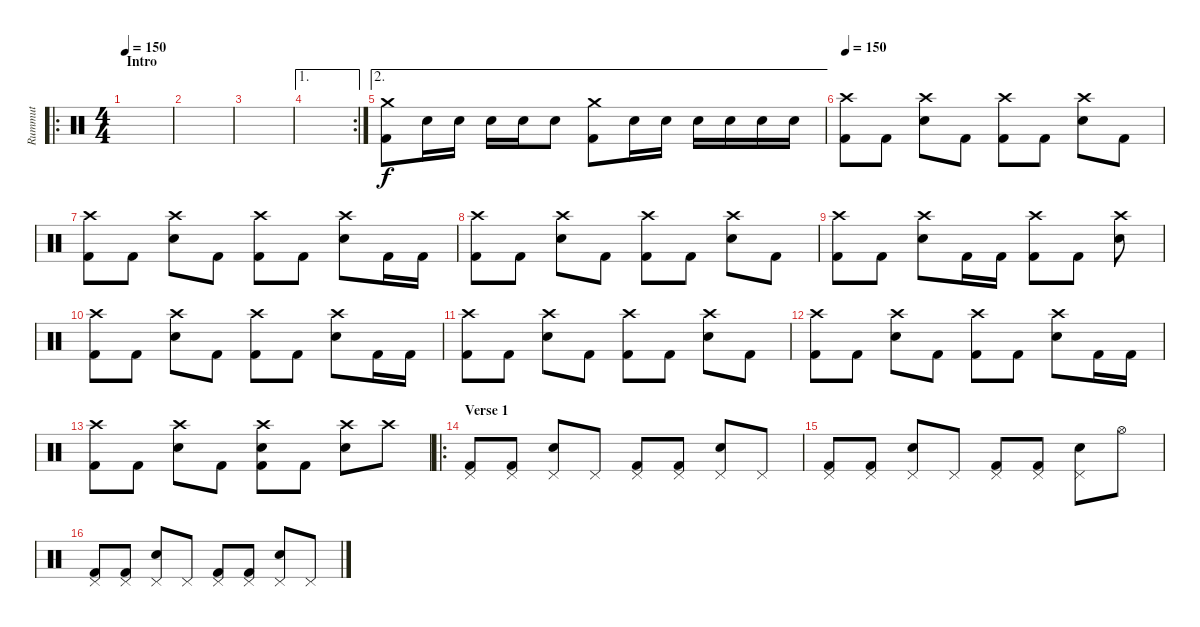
\track ("Rummut" "Rummut") {instrument percussion}
\staff {score}
\articulation defaults
\ro
\ts (4 4)
\section ("" "Intro")
\tempo 150
\clef neutral
\ks c
|
|
|
\ae 1
\rc 2
|
\ae 2
("Crash medium (hit)" "Kick (hit) 2").8 "Snare (hit) 2".16 "Snare (hit) 2".16 "Snare (hit) 2".16 "Snare (hit) 2".16 "Snare (hit) 2".8 ("Crash medium (hit)" "Kick (hit) 2").8 "Snare (hit) 2".16 "Snare (hit) 2".16 "Snare (hit) 2".16 "Snare (hit) 2".16 "Snare (hit) 2".16 "Snare (hit) 2".16 |
\tempo 150
("Crash high (hit)" "Kick (hit) 2").8 "Kick (hit) 2".8 ("Crash high (hit)" "Snare (hit) 2").8 "Kick (hit) 2".8 ("Crash high (hit)" "Kick (hit) 2").8 "Kick (hit) 2".8 ("Crash high (hit)" "Snare (hit) 2").8 "Kick (hit) 2".8 |
("Crash high (hit)" "Kick (hit) 2").8 "Kick (hit) 2".8 ("Crash high (hit)" "Snare (hit) 2").8 "Kick (hit) 2".8 ("Crash high (hit)" "Kick (hit) 2").8 "Kick (hit) 2".8 ("Crash high (hit)" "Snare (hit) 2").8 "Kick (hit) 2".16 "Kick (hit) 2".16 |
("Crash high (hit)" "Kick (hit) 2").8 "Kick (hit) 2".8 ("Crash high (hit)" "Snare (hit) 2").8 "Kick (hit) 2".8 ("Crash high (hit)" "Kick (hit) 2").8 "Kick (hit) 2".8 ("Crash high (hit)" "Snare (hit) 2").8 "Kick (hit) 2".8 |
("Crash high (hit)" "Kick (hit) 2").8 "Kick (hit) 2".8 ("Crash high (hit)" "Snare (hit) 2").8 "Kick (hit) 2".16 "Kick (hit) 2".16 ("Crash high (hit)" "Kick (hit) 2").8 "Kick (hit) 2".8 ("Crash high (hit)" "Snare (hit) 2").8 |
("Crash high (hit)" "Kick (hit) 2").8 "Kick (hit) 2".8 ("Crash high (hit)" "Snare (hit) 2").8 "Kick (hit) 2".8 ("Crash high (hit)" "Kick (hit) 2").8 "Kick (hit) 2".8 ("Crash high (hit)" "Snare (hit) 2").8 "Kick (hit) 2".16 "Kick (hit) 2".16 |
("Crash high (hit)" "Kick (hit) 2").8 "Kick (hit) 2".8 ("Crash high (hit)" "Snare (hit) 2").8 "Kick (hit) 2".8 ("Crash high (hit)" "Kick (hit) 2").8 "Kick (hit) 2".8 ("Crash high (hit)" "Snare (hit) 2").8 "Kick (hit) 2".8 |
("Crash high (hit)" "Kick (hit) 2").8 "Kick (hit) 2".8 ("Crash high (hit)" "Snare (hit) 2").8 "Kick (hit) 2".8 ("Crash high (hit)" "Kick (hit) 2").8 "Kick (hit) 2".8 ("Crash high (hit)" "Snare (hit) 2").8 "Kick (hit) 2".16 "Kick (hit) 2".16 |
("Crash high (hit)" "Kick (hit) 2").8 "Kick (hit) 2".8 ("Crash high (hit)" "Snare (hit) 2").8 "Kick (hit) 2".8 ("Crash high (hit)" "Snare (hit) 2" "Kick (hit) 2").8 "Kick (hit) 2".8 ("Crash high (hit)" "Snare (hit) 2").8 "Crash high (hit)".8 |
\ro
\section ("" "Verse 1")
("Pedal Hi-Hat (hit)" "Kick (hit) 2").8 ("Pedal Hi-Hat (hit)" "Kick (hit) 2").8 ("Pedal Hi-Hat (hit)" "Snare (hit) 2").8 "Pedal Hi-Hat (hit)".8 ("Pedal Hi-Hat (hit)" "Kick (hit) 2").8 ("Pedal Hi-Hat (hit)" "Kick (hit) 2").8 ("Pedal Hi-Hat (hit)" "Snare (hit) 2").8 "Pedal Hi-Hat (hit)".8 |
("Pedal Hi-Hat (hit)" "Kick (hit) 2").8 ("Pedal Hi-Hat (hit)" "Kick (hit) 2").8 ("Pedal Hi-Hat (hit)" "Snare (hit) 2").8 "Pedal Hi-Hat (hit)".8 ("Pedal Hi-Hat (hit)" "Kick (hit) 2").8 ("Pedal Hi-Hat (hit)" "Kick (hit) 2").8 ("Pedal Hi-Hat (hit)" "Snare (hit) 2").8 "Hi-Hat (open)".8 |
("Pedal Hi-Hat (hit)" "Kick (hit) 2").8 ("Pedal Hi-Hat (hit)" "Kick (hit) 2").8 ("Pedal Hi-Hat (hit)" "Snare (hit) 2").8 "Pedal Hi-Hat (hit)".8 ("Pedal Hi-Hat (hit)" "Kick (hit) 2").8 ("Pedal Hi-Hat (hit)" "Kick (hit) 2").8 ("Pedal Hi-Hat (hit)" "Snare (hit) 2").8 "Pedal Hi-Hat (hit)".8
